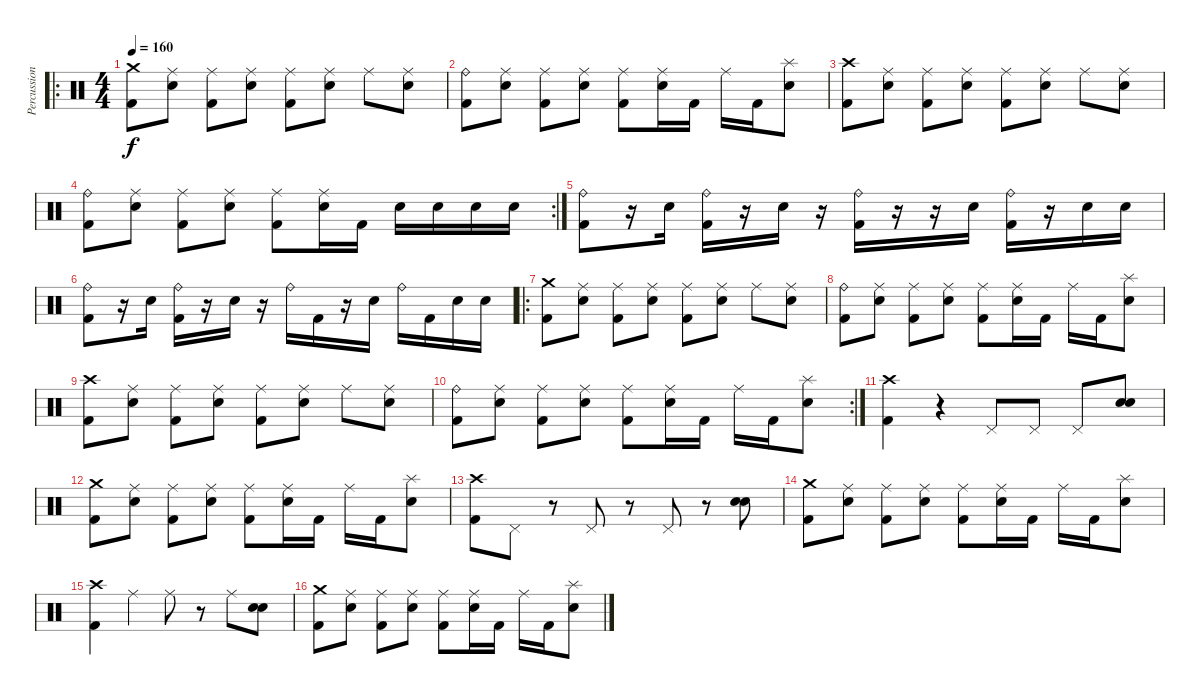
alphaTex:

\track ("Percussion" "Percussion") {instrument percussion}
\staff {score}
\articulation defaults
\ro
\ts (4 4)
\tempo 160
\clef neutral
\ks c
("Crash medium (hit)" "Kick (hit) 2").8{dy f} ("Ride (middle)" "Electric Snare (hit)").8 ("Ride (middle)" "Kick (hit) 2").8 ("Ride (middle)" "Electric Snare (hit)").8 ("Ride (middle)" "Kick (hit) 2").8 ("Ride (middle)" "Electric Snare (hit)").8 "Ride (middle)".8 ("Ride (middle)" "Electric Snare (hit)").8 |
("Ride (bell)" "Kick (hit) 2").8 ("Ride (middle)" "Electric Snare (hit)").8 ("Ride (middle)" "Kick (hit) 2").8 ("Ride (middle)" "Electric Snare (hit)").8 ("Ride (middle)" "Kick (hit) 2").8 ("Ride (middle)" "Electric Snare (hit)").16 "Kick (hit) 2".16 "Ride (middle)".16 "Kick (hit) 2".16 ("Splash (hit)" "Electric Snare (hit)").8 |
("Crash high (hit)" "Kick (hit) 2").8 ("Ride (middle)" "Electric Snare (hit)").8 ("Ride (middle)" "Kick (hit) 2").8 ("Ride (middle)" "Electric Snare (hit)").8 ("Ride (middle)" "Kick (hit) 2").8 ("Ride (middle)" "Electric Snare (hit)").8 "Ride (middle)".8 ("Ride (middle)" "Electric Snare (hit)").8 |
\rc 2
("Ride (bell)" "Kick (hit) 2").8 ("Ride (middle)" "Electric Snare (hit)").8 ("Ride (middle)" "Kick (hit) 2").8 ("Ride (middle)" "Electric Snare (hit)").8 ("Ride (middle)" "Kick (hit) 2").8 ("Ride (middle)" "Electric Snare (hit)").16 "Kick (hit) 2".16 "Electric Snare (hit)".16 "Electric Snare (hit)".16 "Electric Snare (hit)".16 "Electric Snare (hit)".16 |
("Kick (hit) 2" "Ride (bell)").8 r.16 "Electric Snare (hit)".16 ("Kick (hit) 2" "Ride (bell)").16 r.16 "Electric Snare (hit)".16 r.16 ("Kick (hit) 2" "Ride (bell)").16 r.16 r.16 "Electric Snare (hit)".16 ("Kick (hit) 2" "Ride (bell)").16 r.16 "Electric Snare (hit)".16 "Electric Snare (hit)".16 |
("Kick (hit) 2" "Ride (bell)").8 r.16 "Electric Snare (hit)".16 ("Kick (hit) 2" "Ride (bell)").16 r.16 "Electric Snare (hit)".16 r.16 "Ride (bell)".16 "Kick (hit) 2".16 r.16 "Electric Snare (hit)".16 "Ride (bell)".16 "Kick (hit) 2".16 "Electric Snare (hit)".16 "Electric Snare (hit)".16 |
\ro
("Crash medium (hit)" "Kick (hit) 2").8 ("Ride (middle)" "Electric Snare (hit)").8 ("Ride (middle)" "Kick (hit) 2").8 ("Ride (middle)" "Electric Snare (hit)").8 ("Ride (middle)" "Kick (hit) 2").8 ("Ride (middle)" "Electric Snare (hit)").8 "Ride (middle)".8 ("Ride (middle)" "Electric Snare (hit)").8 |
("Ride (bell)" "Kick (hit) 2").8 ("Ride (middle)" "Electric Snare (hit)").8 ("Ride (middle)" "Kick (hit) 2").8 ("Ride (middle)" "Electric Snare (hit)").8 ("Ride (middle)" "Kick (hit) 2").8 ("Ride (middle)" "Electric Snare (hit)").16 "Kick (hit) 2".16 "Ride (middle)".16 "Kick (hit) 2".16 ("Splash (hit)" "Electric Snare (hit)").8 |
("Crash high (hit)" "Kick (hit) 2").8 ("Ride (middle)" "Electric Snare (hit)").8 ("Ride (middle)" "Kick (hit) 2").8 ("Ride (middle)" "Electric Snare (hit)").8 ("Ride (middle)" "Kick (hit) 2").8 ("Ride (middle)" "Electric Snare (hit)").8 "Ride (middle)".8 ("Ride (middle)" "Electric Snare (hit)").8 |
\rc 2
("Ride (bell)" "Kick (hit) 2").8 ("Ride (middle)" "Electric Snare (hit)").8 ("Ride (middle)" "Kick (hit) 2").8 ("Ride (middle)" "Electric Snare (hit)").8 ("Ride (middle)" "Kick (hit) 2").8 ("Ride (middle)" "Electric Snare (hit)").16 "Kick (hit) 2".16 "Ride (middle)".16 "Kick (hit) 2".16 ("Splash (hit)" "Electric Snare (hit)").8 |
("Crash high (hit)" "Kick (hit) 2").4 r.4 "Pedal Hi-Hat (hit)".8 "Pedal Hi-Hat (hit)".8 "Pedal Hi-Hat (hit)".8 ("Electric Snare (hit)" "Electric Snare (hit)").8{bd 60} |
("Crash medium (hit)" "Kick (hit) 2").8 ("Ride (middle)" "Electric Snare (hit)").8 ("Ride (middle)" "Kick (hit) 2").8 ("Ride (middle)" "Electric Snare (hit)").8 ("Ride (middle)" "Kick (hit) 2").8 ("Ride (middle)" "Electric Snare (hit)").16 "Kick (hit) 2".16 "Ride (middle)".16 "Kick (hit) 2".16 ("Splash (hit)" "Electric Snare (hit)").8 |
("Crash high (hit)" "Kick (hit) 2").8 "Pedal Hi-Hat (hit)".8 r.8 "Pedal Hi-Hat (hit)".8 r.8 "Pedal Hi-Hat (hit)".8 r.8 ("Electric Snare (hit)" "Electric Snare (hit)").8{bd 60} |
("Crash medium (hit)" "Kick (hit) 2").8 ("Ride (middle)" "Electric Snare (hit)").8 ("Ride (middle)" "Kick (hit) 2").8 ("Ride (middle)" "Electric Snare (hit)").8 ("Ride (middle)" "Kick (hit) 2").8 ("Ride (middle)" "Electric Snare (hit)").16 "Kick (hit) 2".16 "Ride (middle)".16 "Kick (hit) 2".16 ("Splash (hit)" "Electric Snare (hit)").8 |
("Crash high (hit)" "Kick (hit) 2").4 "Ride (middle)".4 "Ride (middle)".8 r.8 "Ride (middle)".8 ("Electric Snare (hit)" "Electric Snare (hit)").8{bd 60} |
("Crash medium (hit)" "Kick (hit) 2").8 ("Ride (middle)" "Electric Snare (hit)").8 ("Ride (middle)" "Kick (hit) 2").8 ("Ride (middle)" "Electric Snare (hit)").8 ("Ride (middle)" "Kick (hit) 2").8 ("Ride (middle)" "Electric Snare (hit)").16 "Kick (hit) 2".16 "Ride (middle)".16 "Kick (hit) 2".16 ("Splash (hit)" "Electric Snare (hit)").8
